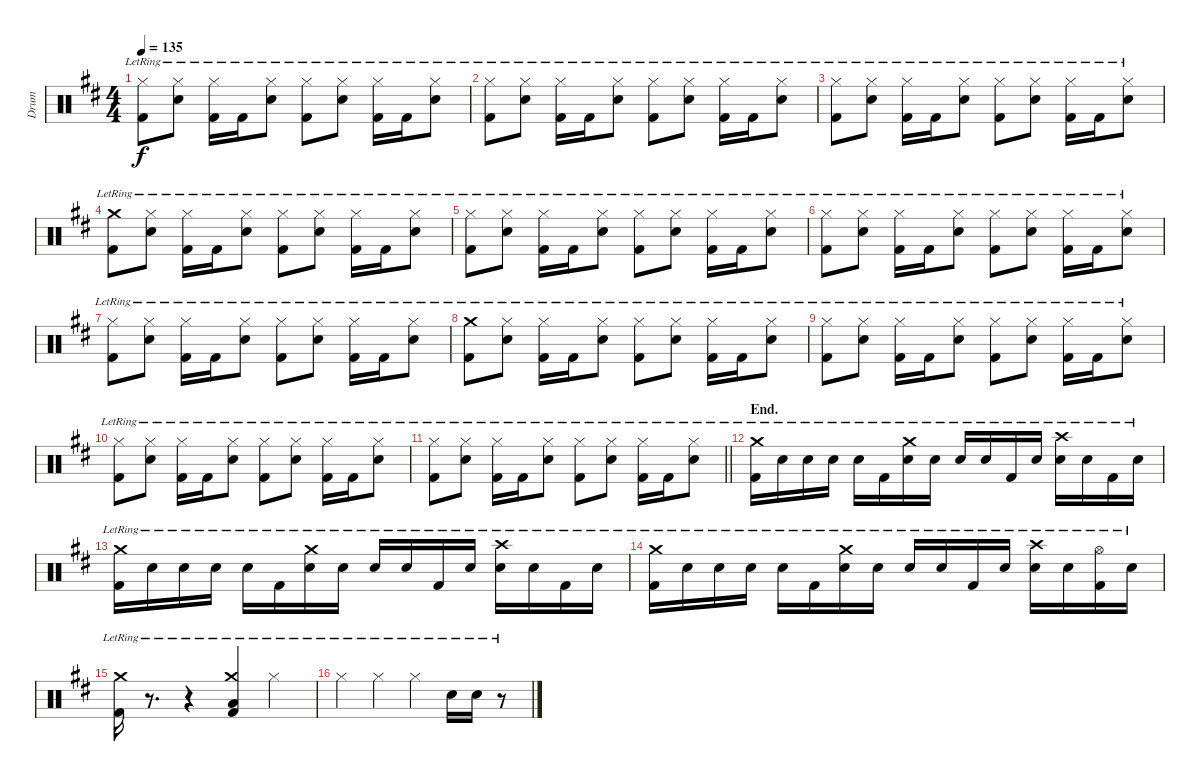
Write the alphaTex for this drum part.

\track ("Drum" "Drum") {instrument percussion}
\staff {score}
\articulation defaults
\ts (4 4)
\tempo 135
\clef neutral
\ks bminor
("Hi-Hat (closed)"{lr} "Kick (hit) 2"{lr}).8{dy f} ("Hi-Hat (closed)"{lr} "Snare (hit) 2"{lr}).8 ("Hi-Hat (closed)"{lr} "Kick (hit) 2"{lr}).16 "Kick (hit) 2"{lr}.16 ("Hi-Hat (closed)"{lr} "Snare (hit) 2"{lr}).8 ("Hi-Hat (closed)"{lr} "Kick (hit) 2"{lr}).8 ("Hi-Hat (closed)"{lr} "Snare (hit) 2"{lr}).8 ("Hi-Hat (closed)"{lr} "Kick (hit) 2"{lr}).16 "Kick (hit) 2"{lr}.16 ("Hi-Hat (closed)"{lr} "Snare (hit) 2"{lr}).8 |
("Hi-Hat (closed)"{lr} "Kick (hit) 2"{lr}).8 ("Hi-Hat (closed)"{lr} "Snare (hit) 2"{lr}).8 ("Hi-Hat (closed)"{lr} "Kick (hit) 2"{lr}).16 "Kick (hit) 2"{lr}.16 ("Hi-Hat (closed)"{lr} "Snare (hit) 2"{lr}).8 ("Hi-Hat (closed)"{lr} "Kick (hit) 2"{lr}).8 ("Hi-Hat (closed)"{lr} "Snare (hit) 2"{lr}).8 ("Hi-Hat (closed)"{lr} "Kick (hit) 2"{lr}).16 "Kick (hit) 2"{lr}.16 ("Hi-Hat (closed)"{lr} "Snare (hit) 2"{lr}).8 |
("Hi-Hat (closed)"{lr} "Kick (hit) 2"{lr}).8 ("Hi-Hat (closed)"{lr} "Snare (hit) 2"{lr}).8 ("Hi-Hat (closed)"{lr} "Kick (hit) 2"{lr}).16 "Kick (hit) 2"{lr}.16 ("Hi-Hat (closed)"{lr} "Snare (hit) 2"{lr}).8 ("Hi-Hat (closed)"{lr} "Kick (hit) 2"{lr}).8 ("Hi-Hat (closed)"{lr} "Snare (hit) 2"{lr}).8 ("Hi-Hat (closed)"{lr} "Kick (hit) 2"{lr}).16 "Kick (hit) 2"{lr}.16 ("Hi-Hat (closed)"{lr} "Snare (hit) 2"{lr}).8 |
("Crash medium (hit)"{lr} "Kick (hit) 2"{lr}).8 ("Hi-Hat (closed)"{lr} "Snare (hit) 2"{lr}).8 ("Hi-Hat (closed)"{lr} "Kick (hit) 2"{lr}).16 "Kick (hit) 2"{lr}.16 ("Hi-Hat (closed)"{lr} "Snare (hit) 2"{lr}).8 ("Hi-Hat (closed)"{lr} "Kick (hit) 2"{lr}).8 ("Hi-Hat (closed)"{lr} "Snare (hit) 2"{lr}).8 ("Hi-Hat (closed)"{lr} "Kick (hit) 2"{lr}).16 "Kick (hit) 2"{lr}.16 ("Hi-Hat (closed)"{lr} "Snare (hit) 2"{lr}).8 |
("Hi-Hat (closed)"{lr} "Kick (hit) 2"{lr}).8 ("Hi-Hat (closed)"{lr} "Snare (hit) 2"{lr}).8 ("Hi-Hat (closed)"{lr} "Kick (hit) 2"{lr}).16 "Kick (hit) 2"{lr}.16 ("Hi-Hat (closed)"{lr} "Snare (hit) 2"{lr}).8 ("Hi-Hat (closed)"{lr} "Kick (hit) 2"{lr}).8 ("Hi-Hat (closed)"{lr} "Snare (hit) 2"{lr}).8 ("Hi-Hat (closed)"{lr} "Kick (hit) 2"{lr}).16 "Kick (hit) 2"{lr}.16 ("Hi-Hat (closed)"{lr} "Snare (hit) 2"{lr}).8 |
("Hi-Hat (closed)"{lr} "Kick (hit) 2"{lr}).8 ("Hi-Hat (closed)"{lr} "Snare (hit) 2"{lr}).8 ("Hi-Hat (closed)"{lr} "Kick (hit) 2"{lr}).16 "Kick (hit) 2"{lr}.16 ("Hi-Hat (closed)"{lr} "Snare (hit) 2"{lr}).8 ("Hi-Hat (closed)"{lr} "Kick (hit) 2"{lr}).8 ("Hi-Hat (closed)"{lr} "Snare (hit) 2"{lr}).8 ("Hi-Hat (closed)"{lr} "Kick (hit) 2"{lr}).16 "Kick (hit) 2"{lr}.16 ("Hi-Hat (closed)"{lr} "Snare (hit) 2"{lr}).8 |
("Hi-Hat (closed)"{lr} "Kick (hit) 2"{lr}).8 ("Hi-Hat (closed)"{lr} "Snare (hit) 2"{lr}).8 ("Hi-Hat (closed)"{lr} "Kick (hit) 2"{lr}).16 "Kick (hit) 2"{lr}.16 ("Hi-Hat (closed)"{lr} "Snare (hit) 2"{lr}).8 ("Hi-Hat (closed)"{lr} "Kick (hit) 2"{lr}).8 ("Hi-Hat (closed)"{lr} "Snare (hit) 2"{lr}).8 ("Hi-Hat (closed)"{lr} "Kick (hit) 2"{lr}).16 "Kick (hit) 2"{lr}.16 ("Hi-Hat (closed)"{lr} "Snare (hit) 2"{lr}).8 |
("Crash medium (hit)"{lr} "Kick (hit) 2"{lr}).8 ("Hi-Hat (closed)"{lr} "Snare (hit) 2"{lr}).8 ("Hi-Hat (closed)"{lr} "Kick (hit) 2"{lr}).16 "Kick (hit) 2"{lr}.16 ("Hi-Hat (closed)"{lr} "Snare (hit) 2"{lr}).8 ("Hi-Hat (closed)"{lr} "Kick (hit) 2"{lr}).8 ("Hi-Hat (closed)"{lr} "Snare (hit) 2"{lr}).8 ("Hi-Hat (closed)"{lr} "Kick (hit) 2"{lr}).16 "Kick (hit) 2"{lr}.16 ("Hi-Hat (closed)"{lr} "Snare (hit) 2"{lr}).8 |
("Hi-Hat (closed)"{lr} "Kick (hit) 2"{lr}).8 ("Hi-Hat (closed)"{lr} "Snare (hit) 2"{lr}).8 ("Hi-Hat (closed)"{lr} "Kick (hit) 2"{lr}).16 "Kick (hit) 2"{lr}.16 ("Hi-Hat (closed)"{lr} "Snare (hit) 2"{lr}).8 ("Hi-Hat (closed)"{lr} "Kick (hit) 2"{lr}).8 ("Hi-Hat (closed)"{lr} "Snare (hit) 2"{lr}).8 ("Hi-Hat (closed)"{lr} "Kick (hit) 2"{lr}).16 "Kick (hit) 2"{lr}.16 ("Hi-Hat (closed)"{lr} "Snare (hit) 2"{lr}).8 |
("Hi-Hat (closed)"{lr} "Kick (hit) 2"{lr}).8 ("Hi-Hat (closed)"{lr} "Snare (hit) 2"{lr}).8 ("Hi-Hat (closed)"{lr} "Kick (hit) 2"{lr}).16 "Kick (hit) 2"{lr}.16 ("Hi-Hat (closed)"{lr} "Snare (hit) 2"{lr}).8 ("Hi-Hat (closed)"{lr} "Kick (hit) 2"{lr}).8 ("Hi-Hat (closed)"{lr} "Snare (hit) 2"{lr}).8 ("Hi-Hat (closed)"{lr} "Kick (hit) 2"{lr}).16 "Kick (hit) 2"{lr}.16 ("Hi-Hat (closed)"{lr} "Snare (hit) 2"{lr}).8 |
\barLineRight lightlight
("Hi-Hat (closed)"{lr} "Kick (hit) 2"{lr}).8 ("Hi-Hat (closed)"{lr} "Snare (hit) 2"{lr}).8 ("Hi-Hat (closed)"{lr} "Kick (hit) 2"{lr}).16 "Kick (hit) 2"{lr}.16 ("Hi-Hat (closed)"{lr} "Snare (hit) 2"{lr}).8 ("Hi-Hat (closed)"{lr} "Kick (hit) 2"{lr}).8 ("Hi-Hat (closed)"{lr} "Snare (hit) 2"{lr}).8 ("Hi-Hat (closed)"{lr} "Kick (hit) 2"{lr}).16 "Kick (hit) 2"{lr}.16 ("Hi-Hat (closed)"{lr} "Snare (hit) 2"{lr}).8 |
\section ("" "End.")
("Crash medium (hit)"{lr} "Kick (hit) 2"{lr}).16 "Snare (hit) 2"{lr}.16 "Snare (hit) 2"{lr}.16 "Snare (hit) 2"{lr}.16 "Snare (hit) 2"{lr}.16 "Kick (hit) 2"{lr}.16 ("Crash medium (hit)"{lr} "Snare (hit) 2"{lr}).16 "Snare (hit) 2"{lr}.16 "Snare (hit) 2"{lr}.16 "Snare (hit) 2"{lr}.16 "Kick (hit) 2"{lr}.16 "Snare (hit) 2"{lr}.16 ("Crash high (hit)"{lr} "Snare (hit) 2"{lr}).16 "Snare (hit) 2"{lr}.16 "Kick (hit) 2"{lr}.16 "Snare (hit) 2"{lr}.16 |
("Crash medium (hit)"{lr} "Kick (hit) 2"{lr}).16 "Snare (hit) 2"{lr}.16 "Snare (hit) 2"{lr}.16 "Snare (hit) 2"{lr}.16 "Snare (hit) 2"{lr}.16 "Kick (hit) 2"{lr}.16 ("Crash medium (hit)"{lr} "Snare (hit) 2"{lr}).16 "Snare (hit) 2"{lr}.16 "Snare (hit) 2"{lr}.16 "Snare (hit) 2"{lr}.16 "Kick (hit) 2"{lr}.16 "Snare (hit) 2"{lr}.16 ("Crash high (hit)"{lr} "Snare (hit) 2"{lr}).16 "Snare (hit) 2"{lr}.16 "Kick (hit) 2"{lr}.16 "Snare (hit) 2"{lr}.16 |
("Crash medium (hit)"{lr} "Kick (hit) 2"{lr}).16 "Snare (hit) 2"{lr}.16 "Snare (hit) 2"{lr}.16 "Snare (hit) 2"{lr}.16 "Snare (hit) 2"{lr}.16 "Kick (hit) 2"{lr}.16 ("Crash medium (hit)"{lr} "Snare (hit) 2"{lr}).16 "Snare (hit) 2"{lr}.16 "Snare (hit) 2"{lr}.16 "Snare (hit) 2"{lr}.16 "Kick (hit) 2"{lr}.16 "Snare (hit) 2"{lr}.16 ("Crash high (hit)"{lr} "Snare (hit) 2"{lr}).16 "Snare (hit) 2"{lr}.16 ("Hi-Hat (open)"{lr} "Kick (hit) 2"{lr}).16 "Snare (hit) 2"{lr}.16 |
("Crash medium (hit)"{lr} "Kick (hit) 2"{lr}).16 r.8{d} r.4 ("Crash medium (hit)"{lr} "Low Floor Tom (hit)"{lr} "Kick (hit) 2"{lr}).4 "Hi-Hat (closed)"{lr}.4 |
"Hi-Hat (closed)"{lr}.4 "Hi-Hat (closed)"{lr}.4 "Hi-Hat (closed)"{lr}.4 "Snare (hit) 2"{lr}.16 "Snare (hit) 2"{lr}.16 r.8
